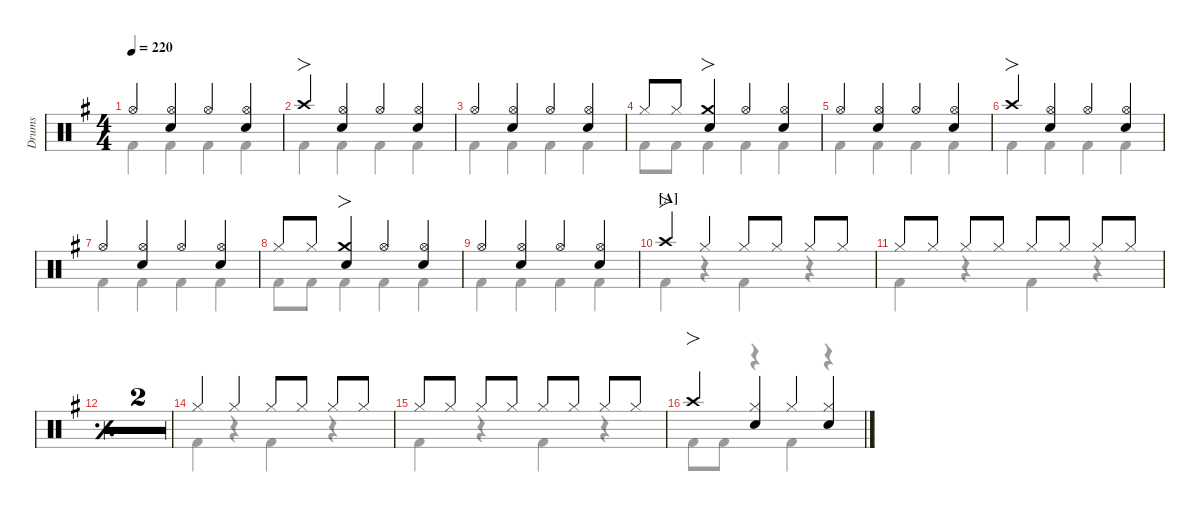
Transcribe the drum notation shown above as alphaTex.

\hideDynamics
\bracketExtendMode nobrackets
\multiBarRest
\otherSystemsTrackNameOrientation horizontal
\track ("Drums" "Drums") {defaultSystemsLayout 4 multiBarRest instrument percussion}
\staff {score}
\articulation defaults
\voice
\ts (4 4)
\tempo 220
\clef neutral
\scale
0.97879
\ks g "Hi-Hat (open)"{acc forcenatural}.4{dy f beam Up}
("Hi-Hat (open)"{acc forcenatural} "Snare (hit) 2"{acc forcenatural}).4{beam Up} "Hi-Hat (open)"{acc forcenatural}.4{beam Up} ("Hi-Hat (open)"{acc forcenatural} "Snare (hit) 2"{acc forcenatural}).4{beam Up} |
\scale
1.06363 "Crash high (hit)"{acc forcenatural}.4{fo beam Up} ("Hi-Hat (open)"{acc forcenatural} "Snare (hit) 2"{acc forcenatural}).4{beam Up} "Hi-Hat (open)"{acc forcenatural}.4{beam Up} ("Hi-Hat (open)"{acc forcenatural} "Snare (hit) 2"{acc forcenatural}).4{beam Up} |
\scale
0.97879 "Hi-Hat (open)"{acc forcenatural}.4{beam Up} ("Hi-Hat (open)"{acc forcenatural} "Snare (hit) 2"{acc forcenatural}).4{beam Up} "Hi-Hat (open)"{acc forcenatural}.4{beam Up} ("Hi-Hat (open)"{acc forcenatural} "Snare (hit) 2"{acc forcenatural}).4{beam Up} |
\scale
0.97879 "Hi-Hat (closed)"{acc forcenatural}.8{beam Up} "Hi-Hat (closed)"{acc forcenatural}.8{dy mf beam Up} ("Crash medium (hit)"{acc forcenatural} "Snare (hit) 2"{acc forcenatural}).4{fo dy f beam Up} "Hi-Hat (open)"{acc forcenatural}.4{beam Up} ("Hi-Hat (open)"{acc forcenatural} "Snare (hit) 2"{acc forcenatural}).4{beam Up} |
\scale
0.97879 "Hi-Hat (open)"{acc forcenatural}.4{beam Up} ("Hi-Hat (open)"{acc forcenatural} "Snare (hit) 2"{acc forcenatural}).4{beam Up} "Hi-Hat (open)"{acc forcenatural}.4{beam Up} ("Hi-Hat (open)"{acc forcenatural} "Snare (hit) 2"{acc forcenatural}).4{beam Up} |
\scale
1.05921 "Crash high (hit)"{acc forcenatural}.4{fo beam Up} ("Hi-Hat (open)"{acc forcenatural} "Snare (hit) 2"{acc forcenatural}).4{beam Up} "Hi-Hat (open)"{acc forcenatural}.4{beam Up} ("Hi-Hat (open)"{acc forcenatural} "Snare (hit) 2"{acc forcenatural}).4{beam Up} |
\scale
0.974368 "Hi-Hat (open)"{acc forcenatural}.4{beam Up} ("Hi-Hat (open)"{acc forcenatural} "Snare (hit) 2"{acc forcenatural}).4{beam Up} "Hi-Hat (open)"{acc forcenatural}.4{beam Up} ("Hi-Hat (open)"{acc forcenatural} "Snare (hit) 2"{acc forcenatural}).4{beam Up} |
\scale
0.974368 "Hi-Hat (closed)"{acc forcenatural}.8{beam Up} "Hi-Hat (closed)"{acc forcenatural}.8{dy mf beam Up} ("Crash medium (hit)"{acc forcenatural} "Snare (hit) 2"{acc forcenatural}).4{fo dy f beam Up} "Hi-Hat (open)"{acc forcenatural}.4{beam Up} ("Hi-Hat (open)"{acc forcenatural} "Snare (hit) 2"{acc forcenatural}).4{beam Up} |
\scale
0.992053 "Hi-Hat (open)"{acc forcenatural}.4{beam Up} ("Hi-Hat (open)"{acc forcenatural} "Snare (hit) 2"{acc forcenatural}).4{beam Up} "Hi-Hat (open)"{acc forcenatural}.4{beam Up} ("Hi-Hat (open)"{acc forcenatural} "Snare (hit) 2"{acc forcenatural}).4{beam Up} |
\section ("A" "")
\scale
1.06363 "Crash high (hit)"{acc forcenatural}.4{fo beam Up} "Hi-Hat (closed)"{acc forcenatural}.4{beam Up} "Hi-Hat (closed)"{acc forcenatural}.8{beam Up} "Hi-Hat (closed)"{acc forcenatural}.8{dy mf beam Up} "Hi-Hat (closed)"{acc forcenatural}.8{dy f beam Up} "Hi-Hat (closed)"{acc forcenatural}.8{dy mf beam Up} |
\scale
0.97879 "Hi-Hat (closed)"{acc forcenatural}.8{dy f beam Up} "Hi-Hat (closed)"{acc forcenatural}.8{dy mf beam Up} "Hi-Hat (closed)"{acc forcenatural}.8{dy f beam Up} "Hi-Hat (closed)"{acc forcenatural}.8{dy mf beam Up} "Hi-Hat (closed)"{acc forcenatural}.8{dy f beam Up} "Hi-Hat (closed)"{acc forcenatural}.8{dy mf beam Up} "Hi-Hat (closed)"{acc forcenatural}.8{dy f beam Up} "Hi-Hat (closed)"{acc forcenatural}.8{dy mf beam Up} |
\simile simple
\scale
0.97879 |
\scale
0.97879 |
\simile none
\scale
1.06363 "Hi-Hat (closed)"{acc forcenatural}.4{dy f beam Up} "Hi-Hat (closed)"{acc forcenatural}.4{beam Up} "Hi-Hat (closed)"{acc forcenatural}.8{beam Up} "Hi-Hat (closed)"{acc forcenatural}.8{dy mf beam Up} "Hi-Hat (closed)"{acc forcenatural}.8{dy f beam Up} "Hi-Hat (closed)"{acc forcenatural}.8{dy mf beam Up} |
\scale
0.97879 "Hi-Hat (closed)"{acc forcenatural}.8{dy f beam Up} "Hi-Hat (closed)"{acc forcenatural}.8{dy mf beam Up} "Hi-Hat (closed)"{acc forcenatural}.8{dy f beam Up} "Hi-Hat (closed)"{acc forcenatural}.8{dy mf beam Up} "Hi-Hat (closed)"{acc forcenatural}.8{dy f beam Up} "Hi-Hat (closed)"{acc forcenatural}.8{dy mf beam Up} "Hi-Hat (closed)"{acc forcenatural}.8{dy f beam Up} "Hi-Hat (closed)"{acc forcenatural}.8{dy mf beam Up} |
\scale
0.97879 "Crash high (hit)"{acc forcenatural}.4{fo dy f beam Up} ("Snare (hit) 2"{acc forcenatural} "Hi-Hat (closed)"{acc forcenatural}).4{beam Up} "Hi-Hat (closed)"{acc forcenatural}.4{beam Up} ("Hi-Hat (closed)"{acc forcenatural} "Snare (hit) 2"{acc forcenatural}).4{beam Up}
\voice
\clef neutral
\ottava regular
\simile none
\scale
0.97879
\ks g "Kick (hit) 2"{acc forcenatural}.4{dy f beam Down} "Kick (hit) 2"{acc forcenatural}.4{beam Down} "Kick (hit) 2"{acc forcenatural}.4{beam Down} "Kick (hit) 2"{acc forcenatural}.4{beam Down}
|
\scale
1.06363 "Kick (hit) 2"{acc forcenatural}.4{beam Down} "Kick (hit) 2"{acc forcenatural}.4{beam Down} "Kick (hit) 2"{acc forcenatural}.4{beam Down} "Kick (hit) 2"{acc forcenatural}.4{beam Down} |
\scale
0.97879 "Kick (hit) 2"{acc forcenatural}.4{beam Down} "Kick (hit) 2"{acc forcenatural}.4{beam Down} "Kick (hit) 2"{acc forcenatural}.4{beam Down} "Kick (hit) 2"{acc forcenatural}.4{beam Down} |
\scale
0.97879 "Kick (hit) 2"{acc forcenatural}.8{beam Down} "Kick (hit) 2"{acc forcenatural}.8{beam Down} "Kick (hit) 2"{acc forcenatural}.4{beam Down} "Kick (hit) 2"{acc forcenatural}.4{beam Down} "Kick (hit) 2"{acc forcenatural}.4{beam Down} |
\scale
0.97879 "Kick (hit) 2"{acc forcenatural}.4{beam Down} "Kick (hit) 2"{acc forcenatural}.4{beam Down} "Kick (hit) 2"{acc forcenatural}.4{beam Down} "Kick (hit) 2"{acc forcenatural}.4{beam Down} |
\scale
1.05921 "Kick (hit) 2"{acc forcenatural}.4{beam Down} "Kick (hit) 2"{acc forcenatural}.4{beam Down} "Kick (hit) 2"{acc forcenatural}.4{beam Down} "Kick (hit) 2"{acc forcenatural}.4{beam Down} |
\scale
0.974368 "Kick (hit) 2"{acc forcenatural}.4{beam Down} "Kick (hit) 2"{acc forcenatural}.4{beam Down} "Kick (hit) 2"{acc forcenatural}.4{beam Down} "Kick (hit) 2"{acc forcenatural}.4{beam Down} |
\scale
0.974368 "Kick (hit) 2"{acc forcenatural}.8{beam Down} "Kick (hit) 2"{acc forcenatural}.8{beam Down} "Kick (hit) 2"{acc forcenatural}.4{beam Down} "Kick (hit) 2"{acc forcenatural}.4{beam Down} "Kick (hit) 2"{acc forcenatural}.4{beam Down} |
\scale
0.992053 "Kick (hit) 2"{acc forcenatural}.4{beam Down} "Kick (hit) 2"{acc forcenatural}.4{beam Down} "Kick (hit) 2"{acc forcenatural}.4{beam Down} "Kick (hit) 2"{acc forcenatural}.4{beam Down} |
\scale
1.06363 "Kick (hit) 2"{acc forcenatural}.4{beam Down} r.4{beam Down} "Kick (hit) 2"{acc forcenatural}.4{beam Down} r.4{beam Down} |
\scale
0.97879 "Kick (hit) 2"{acc forcenatural}.4{beam Down} r.4{beam Down} "Kick (hit) 2"{acc forcenatural}.4{beam Down} r.4{beam Down} |
\simile simple
\scale
0.97879 |
\scale
0.97879 |
\simile none
\scale
1.06363 "Kick (hit) 2"{acc forcenatural}.4{beam Down} r.4{beam Down} "Kick (hit) 2"{acc forcenatural}.4{beam Down} r.4{beam Down} |
\scale
0.97879 "Kick (hit) 2"{acc forcenatural}.4{beam Down} r.4{beam Down} "Kick (hit) 2"{acc forcenatural}.4{beam Down} r.4{beam Down} |
\scale
0.97879 "Kick (hit) 2"{acc forcenatural}.8{beam Down} "Kick (hit) 2"{acc forcenatural}.8{beam Down} r.4{beam Down} "Kick (hit) 2"{acc forcenatural}.4{beam Down} r.4{beam Down}
